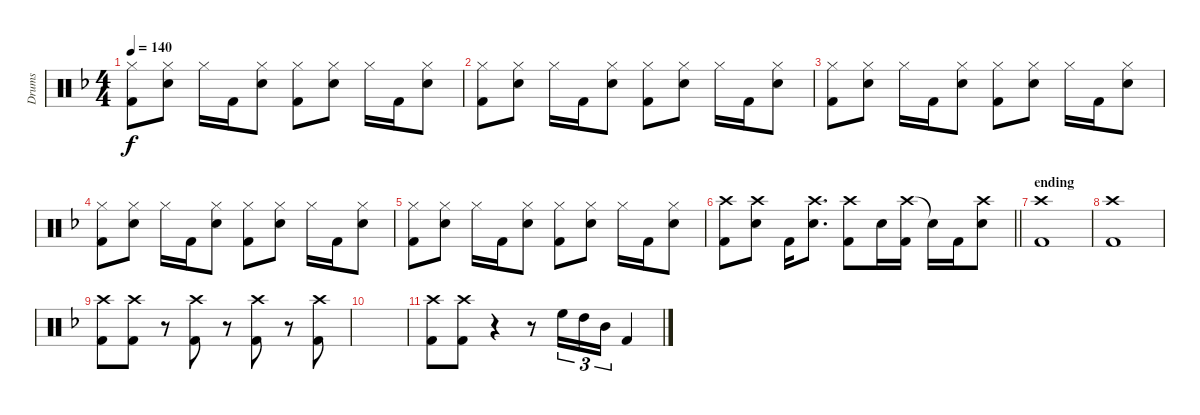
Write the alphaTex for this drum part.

\track ("Drums" "Drums") {instrument percussion}
\staff {score}
\articulation defaults
\ts (4 4)
\tempo 140
\clef neutral
\ks dminor
("Hi-Hat (closed)" "Kick (hit) 2").8{dy f} ("Hi-Hat (closed)" "Snare (hit) 2").8 "Hi-Hat (closed)".16 "Kick (hit) 2".16 ("Hi-Hat (closed)" "Snare (hit) 2").8 ("Hi-Hat (closed)" "Kick (hit) 2").8 ("Hi-Hat (closed)" "Snare (hit) 2").8 "Hi-Hat (closed)".16 "Kick (hit) 2".16 ("Hi-Hat (closed)" "Snare (hit) 2").8 |
("Hi-Hat (closed)" "Kick (hit) 2").8 ("Hi-Hat (closed)" "Snare (hit) 2").8 "Hi-Hat (closed)".16 "Kick (hit) 2".16 ("Hi-Hat (closed)" "Snare (hit) 2").8 ("Hi-Hat (closed)" "Kick (hit) 2").8 ("Hi-Hat (closed)" "Snare (hit) 2").8 "Hi-Hat (closed)".16 "Kick (hit) 2".16 ("Hi-Hat (closed)" "Snare (hit) 2").8 |
("Hi-Hat (closed)" "Kick (hit) 2").8 ("Hi-Hat (closed)" "Snare (hit) 2").8 "Hi-Hat (closed)".16 "Kick (hit) 2".16 ("Hi-Hat (closed)" "Snare (hit) 2").8 ("Hi-Hat (closed)" "Kick (hit) 2").8 ("Hi-Hat (closed)" "Snare (hit) 2").8 "Hi-Hat (closed)".16 "Kick (hit) 2".16 ("Hi-Hat (closed)" "Snare (hit) 2").8 |
("Hi-Hat (closed)" "Kick (hit) 2").8 ("Hi-Hat (closed)" "Snare (hit) 2").8 "Hi-Hat (closed)".16 "Kick (hit) 2".16 ("Hi-Hat (closed)" "Snare (hit) 2").8 ("Hi-Hat (closed)" "Kick (hit) 2").8 ("Hi-Hat (closed)" "Snare (hit) 2").8 "Hi-Hat (closed)".16 "Kick (hit) 2".16 ("Hi-Hat (closed)" "Snare (hit) 2").8 |
("Hi-Hat (closed)" "Kick (hit) 2").8 ("Hi-Hat (closed)" "Snare (hit) 2").8 "Hi-Hat (closed)".16 "Kick (hit) 2".16 ("Hi-Hat (closed)" "Snare (hit) 2").8 ("Hi-Hat (closed)" "Kick (hit) 2").8 ("Hi-Hat (closed)" "Snare (hit) 2").8 "Hi-Hat (closed)".16 "Kick (hit) 2".16 ("Hi-Hat (closed)" "Snare (hit) 2").8 |
\barLineRight lightlight
("Crash high (hit)" "Kick (hit) 2").8 ("Crash high (hit)" "Snare (hit) 2").8 "Kick (hit) 2".16 ("Crash high (hit)" "Snare (hit) 2").8{d} ("Crash high (hit)" "Kick (hit) 2").8 "Snare (hit) 2".16 ("Crash high (hit)" "Kick (hit) 2").16 "Snare (hit)"{t}.16 "Kick (hit) 2".16 ("Crash high (hit)" "Snare (hit) 2").8 |
\section ("" "ending")
("Crash high (hit)" "Kick (hit) 2").1 |
("Crash high (hit)" "Kick (hit) 2").1 |
("Crash high (hit)" "Kick (hit) 2").8 ("Crash high (hit)" "Kick (hit) 2").8 r.8 ("Crash high (hit)" "Kick (hit) 2").8 r.8 ("Crash high (hit)" "Kick (hit) 2").8 r.8 ("Crash high (hit)" "Kick (hit) 2").8 |
|
("Crash high (hit)" "Kick (hit) 2").8 ("Crash high (hit)" "Kick (hit) 2").8 r.4 r.8 "High Floor Tom (hit)".16{tu (3 2)} "High Tom (hit)".16{tu (3 2)} "Mid Tom (hit)".16{tu (3 2)} "Kick (hit) 2".4
